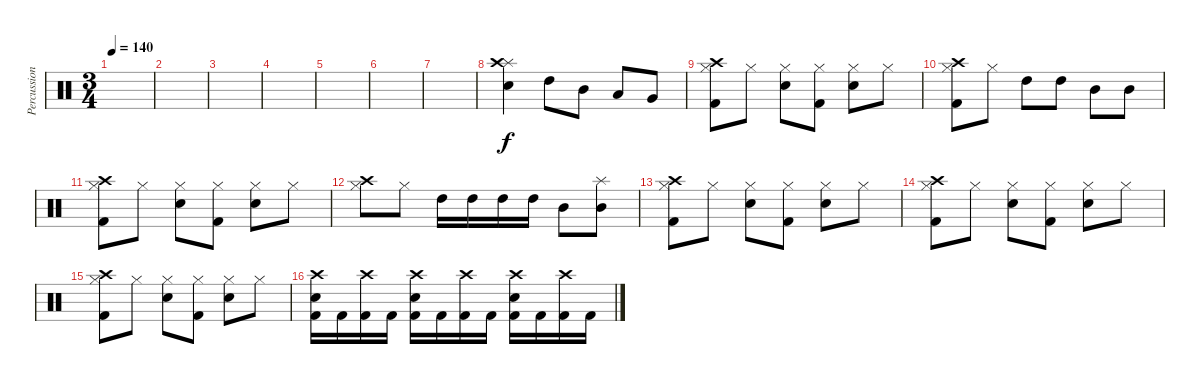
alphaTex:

\track ("Percussion" "Percussion") {instrument percussion}
\staff {score}
\articulation defaults
\ts (3 4)
\tempo 140
\clef neutral
\ks c
|
|
|
|
|
|
|
("Splash (hit)" "Crash high (hit)" "Electric Snare (hit)").4 "High Tom (hit)".8 "Mid Tom (hit)".8 "Low Tom (hit)".8 "Very Low Tom (hit)".8 |
("Crash high (hit)" "Hi-Hat (closed)" "Kick (hit) 2").8 "Hi-Hat (closed)".8 ("Hi-Hat (closed)" "Electric Snare (hit)").8 ("Hi-Hat (closed)" "Kick (hit) 2").8 ("Hi-Hat (closed)" "Electric Snare (hit)").8 "Hi-Hat (closed)".8 |
("Crash high (hit)" "Hi-Hat (closed)" "Kick (hit) 2").8 "Hi-Hat (closed)".8 "High Tom (hit)".8 "High Tom (hit)".8 "Mid Tom (hit)".8 "Mid Tom (hit)".8 |
("Crash high (hit)" "Hi-Hat (closed)" "Kick (hit) 2").8 "Hi-Hat (closed)".8 ("Hi-Hat (closed)" "Electric Snare (hit)").8 ("Hi-Hat (closed)" "Kick (hit) 2").8 ("Hi-Hat (closed)" "Electric Snare (hit)").8 "Hi-Hat (closed)".8 |
("Crash high (hit)" "Hi-Hat (closed)").8 "Hi-Hat (closed)".8 "High Tom (hit)".16 "High Tom (hit)".16 "High Tom (hit)".16 "High Tom (hit)".16 "Mid Tom (hit)".8 ("Splash (hit)" "Mid Tom (hit)").8 |
("Crash high (hit)" "Hi-Hat (closed)" "Kick (hit) 2").8 "Hi-Hat (closed)".8 ("Hi-Hat (closed)" "Electric Snare (hit)").8 ("Hi-Hat (closed)" "Kick (hit) 2").8 ("Hi-Hat (closed)" "Electric Snare (hit)").8 "Hi-Hat (closed)".8 |
("Crash high (hit)" "Hi-Hat (closed)" "Kick (hit) 2").8 "Hi-Hat (closed)".8 ("Hi-Hat (closed)" "Electric Snare (hit)").8 ("Hi-Hat (closed)" "Kick (hit) 2").8 ("Hi-Hat (closed)" "Electric Snare (hit)").8 "Hi-Hat (closed)".8 |
("Crash high (hit)" "Hi-Hat (closed)" "Kick (hit) 2").8 "Hi-Hat (closed)".8 ("Hi-Hat (closed)" "Electric Snare (hit)").8 ("Hi-Hat (closed)" "Kick (hit) 2").8 ("Hi-Hat (closed)" "Electric Snare (hit)").8 "Hi-Hat (closed)".8 |
("Crash high (hit)" "Electric Snare (hit)" "Kick (hit) 2").16 "Kick (hit) 2".16 ("Crash high (hit)" "Kick (hit) 2").16 "Kick (hit) 2".16 ("Crash high (hit)" "Electric Snare (hit)" "Kick (hit) 2").16 "Kick (hit) 2".16 ("Crash high (hit)" "Kick (hit) 2").16 "Kick (hit) 2".16 ("Crash high (hit)" "Electric Snare (hit)" "Kick (hit) 2").16 "Kick (hit) 2".16 ("Crash high (hit)" "Kick (hit) 2").16 "Kick (hit) 2".16
